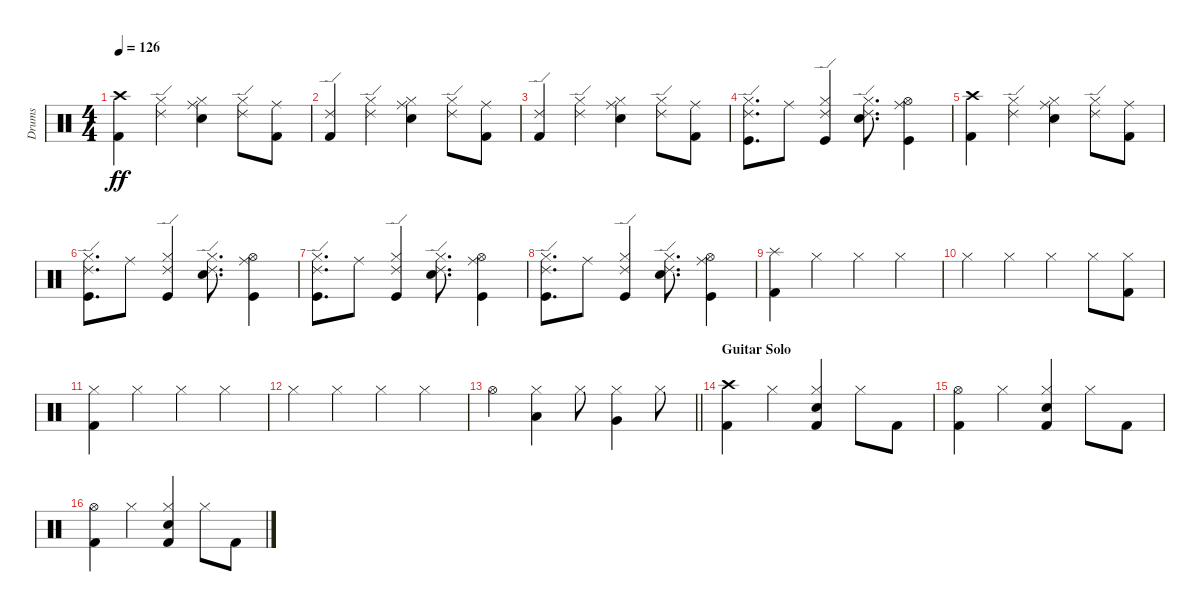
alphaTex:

\track ("Drums" "Drums") {instrument percussion}
\staff {score}
\articulation defaults
\ts (4 4)
\tempo 126
\clef neutral
\ks c
("Crash high (hit)" "Kick (hit) 2").4{dy ff} ("Ride (edge) 2" "Hi-Hat (closed)").4 ("Ride (middle)" "Hi-Hat (closed)" "Snare (hit) 2").4 ("Ride (edge) 2" "Hi-Hat (closed)").8 ("Ride (middle)" "Kick (hit) 2").8 |
("Ride (edge) 2" "Kick (hit) 2").4 ("Ride (edge) 2" "Hi-Hat (closed)").4 ("Ride (middle)" "Hi-Hat (closed)" "Snare (hit) 2").4 ("Ride (edge) 2" "Hi-Hat (closed)").8 ("Ride (middle)" "Kick (hit) 2").8 |
("Ride (edge) 2" "Kick (hit) 2").4 ("Ride (edge) 2" "Hi-Hat (closed)").4 ("Ride (middle)" "Hi-Hat (closed)" "Snare (hit) 2").4 ("Ride (edge) 2" "Hi-Hat (closed)").8 ("Ride (middle)" "Kick (hit) 2").8 |
("Kick (hit)" "Hi-Hat (closed)" "Ride (edge) 2").8{d} "Ride (middle)".8 ("Kick (hit)" "Hi-Hat (closed)" "Ride (edge) 2").4 ("Snare (hit) 2" "Hi-Hat (closed)" "Ride (edge) 2").8{d} ("Kick (hit)" "Hi-Hat (open)" "Ride (middle)").4 |
("Crash high (hit)" "Kick (hit) 2").4 ("Ride (edge) 2" "Hi-Hat (closed)").4 ("Ride (middle)" "Hi-Hat (closed)" "Snare (hit) 2").4 ("Ride (edge) 2" "Hi-Hat (closed)").8 ("Ride (middle)" "Kick (hit) 2").8 |
("Kick (hit)" "Hi-Hat (closed)" "Ride (edge) 2").8{d} "Ride (middle)".8 ("Kick (hit)" "Hi-Hat (closed)" "Ride (edge) 2").4 ("Snare (hit) 2" "Hi-Hat (closed)" "Ride (edge) 2").8{d} ("Kick (hit)" "Hi-Hat (open)" "Ride (middle)").4 |
("Kick (hit)" "Hi-Hat (closed)" "Ride (edge) 2").8{d} "Ride (middle)".8 ("Kick (hit)" "Hi-Hat (closed)" "Ride (edge) 2").4 ("Snare (hit) 2" "Hi-Hat (closed)" "Ride (edge) 2").8{d} ("Kick (hit)" "Hi-Hat (open)" "Ride (middle)").4 |
("Kick (hit)" "Hi-Hat (closed)" "Ride (edge) 2").8{d} "Ride (middle)".8 ("Kick (hit)" "Hi-Hat (closed)" "Ride (edge) 2").4 ("Snare (hit) 2" "Hi-Hat (closed)" "Ride (edge) 2").8{d} ("Kick (hit)" "Hi-Hat (open)" "Ride (middle)").4 |
("Splash (hit)" "Kick (hit) 2").4 "Hi-Hat (closed)".4 "Hi-Hat (closed)".4 "Hi-Hat (closed)".4 |
"Hi-Hat (closed)".4 "Hi-Hat (closed)".4 "Hi-Hat (closed)".4 "Hi-Hat (closed)".8 ("Hi-Hat (closed)" "Kick (hit) 2").8 |
("Hi-Hat (closed)" "Kick (hit) 2").4 "Hi-Hat (closed)".4 "Hi-Hat (closed)".4 "Hi-Hat (closed)".4 |
"Hi-Hat (closed)".4 "Hi-Hat (closed)".4 "Hi-Hat (closed)".4 "Hi-Hat (closed)".4 |
\barLineRight lightlight "Hi-Hat (open)".4
("Hi-Hat (closed)" "Low Tom (hit)").4 "Hi-Hat (closed)".8 ("Hi-Hat (closed)" "Very Low Tom (hit)").4 "Hi-Hat (closed)".8 |
\section ("" "Guitar Solo")
("Crash high (hit)" "Kick (hit) 2").4 "Hi-Hat (closed)".4 ("Hi-Hat (closed)" "Snare (hit) 2" "Kick (hit) 2").4 "Hi-Hat (closed)".8 "Kick (hit) 2".8 |
("Hi-Hat (open)" "Kick (hit) 2").4 "Hi-Hat (closed)".4 ("Hi-Hat (closed)" "Snare (hit) 2" "Kick (hit) 2").4 "Hi-Hat (closed)".8 "Kick (hit) 2".8 |
("Hi-Hat (open)" "Kick (hit) 2").4 "Hi-Hat (closed)".4 ("Hi-Hat (closed)" "Snare (hit) 2" "Kick (hit) 2").4 "Hi-Hat (closed)".8 "Kick (hit) 2".8
